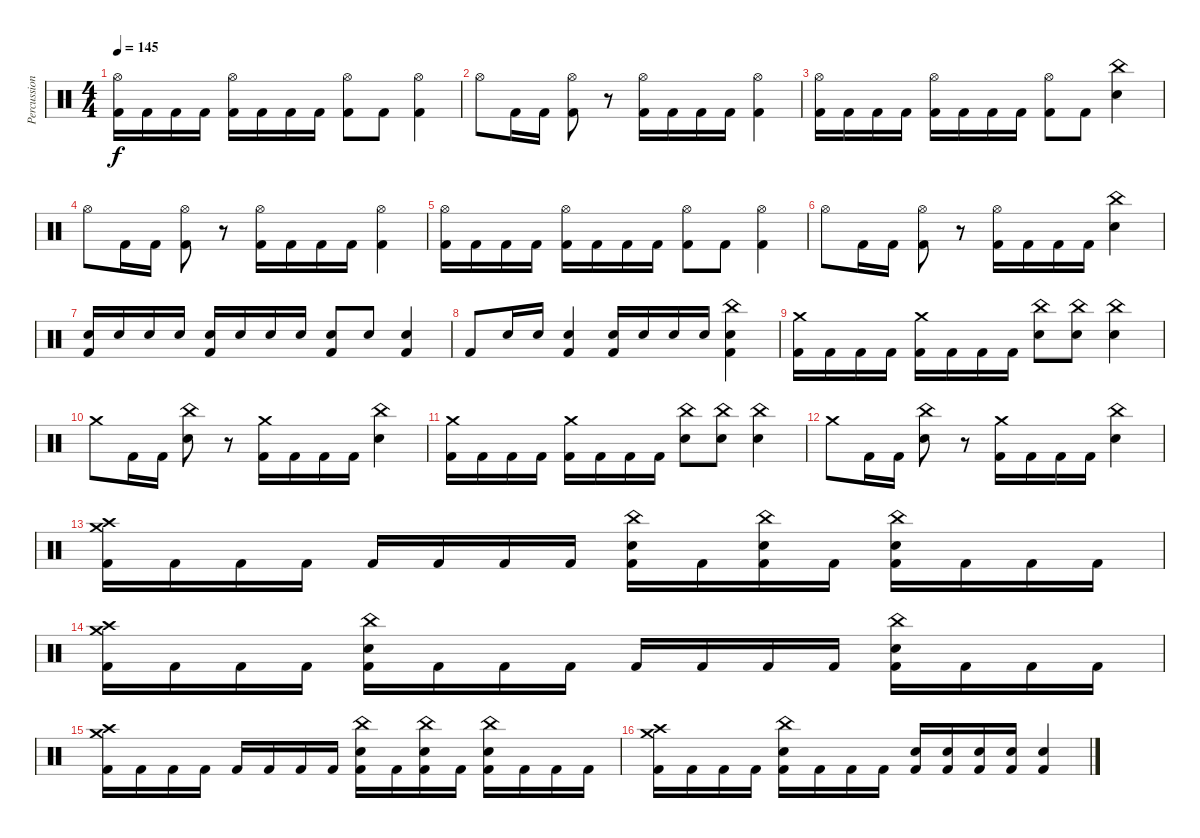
\track ("Percussion" "Percussion") {instrument percussion}
\staff {score}
\articulation defaults
\ts (4 4)
\tempo 145
\clef neutral
\ks c
("Kick (hit) 2" "Hi-Hat (open)").16{dy f} "Kick (hit) 2".16 "Kick (hit) 2".16 "Kick (hit) 2".16 ("Kick (hit) 2" "Hi-Hat (open)").16 "Kick (hit) 2".16 "Kick (hit) 2".16 "Kick (hit) 2".16 ("Kick (hit) 2" "Hi-Hat (open)").8 "Kick (hit) 2".8 ("Kick (hit) 2" "Hi-Hat (open)").4 |
"Hi-Hat (open)".8 "Kick (hit) 2".16 "Kick (hit) 2".16 ("Kick (hit) 2" "Hi-Hat (open)").8 r.8 ("Kick (hit) 2" "Hi-Hat (open)").16 "Kick (hit) 2".16 "Kick (hit) 2".16 "Kick (hit) 2".16 ("Kick (hit) 2" "Hi-Hat (open)").4 |
("Kick (hit) 2" "Hi-Hat (open)").16 "Kick (hit) 2".16 "Kick (hit) 2".16 "Kick (hit) 2".16 ("Kick (hit) 2" "Hi-Hat (open)").16 "Kick (hit) 2".16 "Kick (hit) 2".16 "Kick (hit) 2".16 ("Kick (hit) 2" "Hi-Hat (open)").8 "Kick (hit) 2".8 ("Electric Snare (hit)" "China (hit)").4 |
"Hi-Hat (open)".8 "Kick (hit) 2".16 "Kick (hit) 2".16 ("Kick (hit) 2" "Hi-Hat (open)").8 r.8 ("Kick (hit) 2" "Hi-Hat (open)").16 "Kick (hit) 2".16 "Kick (hit) 2".16 "Kick (hit) 2".16 ("Kick (hit) 2" "Hi-Hat (open)").4 |
("Kick (hit) 2" "Hi-Hat (open)").16 "Kick (hit) 2".16 "Kick (hit) 2".16 "Kick (hit) 2".16 ("Kick (hit) 2" "Hi-Hat (open)").16 "Kick (hit) 2".16 "Kick (hit) 2".16 "Kick (hit) 2".16 ("Kick (hit) 2" "Hi-Hat (open)").8 "Kick (hit) 2".8 ("Kick (hit) 2" "Hi-Hat (open)").4 |
"Hi-Hat (open)".8 "Kick (hit) 2".16 "Kick (hit) 2".16 ("Kick (hit) 2" "Hi-Hat (open)").8 r.8 ("Kick (hit) 2" "Hi-Hat (open)").16 "Kick (hit) 2".16 "Kick (hit) 2".16 "Kick (hit) 2".16 ("Electric Snare (hit)" "China (hit)").4 |
("Kick (hit) 2" "Electric Snare (hit)").16 "Electric Snare (hit)".16 "Electric Snare (hit)".16 "Electric Snare (hit)".16 ("Kick (hit) 2" "Electric Snare (hit)").16 "Electric Snare (hit)".16 "Electric Snare (hit)".16 "Electric Snare (hit)".16 ("Kick (hit) 2" "Electric Snare (hit)").8 "Electric Snare (hit)".8 ("Kick (hit) 2" "Electric Snare (hit)").4 |
"Kick (hit) 2".8 "Electric Snare (hit)".16 "Electric Snare (hit)".16 ("Kick (hit) 2" "Electric Snare (hit)").4 ("Kick (hit) 2" "Electric Snare (hit)").16 "Electric Snare (hit)".16 "Electric Snare (hit)".16 "Electric Snare (hit)".16 ("Kick (hit) 2" "Electric Snare (hit)" "China (hit)").4 |
("Kick (hit) 2" "Crash medium (hit)").16 "Kick (hit) 2".16 "Kick (hit) 2".16 "Kick (hit) 2".16 ("Kick (hit) 2" "Crash medium (hit)").16 "Kick (hit) 2".16 "Kick (hit) 2".16 "Kick (hit) 2".16 ("Electric Snare (hit)" "China (hit)").8 ("Electric Snare (hit)" "China (hit)").8 ("Electric Snare (hit)" "China (hit)").4 |
"Crash medium (hit)".8 "Kick (hit) 2".16 "Kick (hit) 2".16 ("Electric Snare (hit)" "China (hit)").8 r.8 ("Kick (hit) 2" "Crash medium (hit)").16 "Kick (hit) 2".16 "Kick (hit) 2".16 "Kick (hit) 2".16 ("Electric Snare (hit)" "China (hit)").4 |
("Kick (hit) 2" "Crash medium (hit)").16 "Kick (hit) 2".16 "Kick (hit) 2".16 "Kick (hit) 2".16 ("Kick (hit) 2" "Crash medium (hit)").16 "Kick (hit) 2".16 "Kick (hit) 2".16 "Kick (hit) 2".16 ("Electric Snare (hit)" "China (hit)").8 ("Electric Snare (hit)" "China (hit)").8 ("Electric Snare (hit)" "China (hit)").4 |
"Crash medium (hit)".8 "Kick (hit) 2".16 "Kick (hit) 2".16 ("Electric Snare (hit)" "China (hit)").8 r.8 ("Kick (hit) 2" "Crash medium (hit)").16 "Kick (hit) 2".16 "Kick (hit) 2".16 "Kick (hit) 2".16 ("Electric Snare (hit)" "China (hit)").4 |
("Kick (hit) 2" "Crash medium (hit)" "Crash high (hit)").16 "Kick (hit) 2".16 "Kick (hit) 2".16 "Kick (hit) 2".16 "Kick (hit) 2".16 "Kick (hit) 2".16 "Kick (hit) 2".16 "Kick (hit) 2".16 ("Kick (hit) 2" "Electric Snare (hit)" "China (hit)").16 "Kick (hit) 2".16 ("Kick (hit) 2" "Electric Snare (hit)" "China (hit)").16 "Kick (hit) 2".16 ("Kick (hit) 2" "Electric Snare (hit)" "China (hit)").16 "Kick (hit) 2".16 "Kick (hit) 2".16 "Kick (hit) 2".16 |
("Kick (hit) 2" "Crash medium (hit)" "Crash high (hit)").16 "Kick (hit) 2".16 "Kick (hit) 2".16 "Kick (hit) 2".16 ("Kick (hit) 2" "Electric Snare (hit)" "China (hit)").16 "Kick (hit) 2".16 "Kick (hit) 2".16 "Kick (hit) 2".16 "Kick (hit) 2".16 "Kick (hit) 2".16 "Kick (hit) 2".16 "Kick (hit) 2".16 ("Kick (hit) 2" "Electric Snare (hit)" "China (hit)").16 "Kick (hit) 2".16 "Kick (hit) 2".16 "Kick (hit) 2".16 |
("Kick (hit) 2" "Crash medium (hit)" "Crash high (hit)").16 "Kick (hit) 2".16 "Kick (hit) 2".16 "Kick (hit) 2".16 "Kick (hit) 2".16 "Kick (hit) 2".16 "Kick (hit) 2".16 "Kick (hit) 2".16 ("Kick (hit) 2" "Electric Snare (hit)" "China (hit)").16 "Kick (hit) 2".16 ("Kick (hit) 2" "Electric Snare (hit)" "China (hit)").16 "Kick (hit) 2".16 ("Kick (hit) 2" "Electric Snare (hit)" "China (hit)").16 "Kick (hit) 2".16 "Kick (hit) 2".16 "Kick (hit) 2".16 |
("Kick (hit) 2" "Crash medium (hit)" "Crash high (hit)").16 "Kick (hit) 2".16 "Kick (hit) 2".16 "Kick (hit) 2".16 ("Kick (hit) 2" "Electric Snare (hit)" "China (hit)").16 "Kick (hit) 2".16 "Kick (hit) 2".16 "Kick (hit) 2".16 ("Kick (hit) 2" "Electric Snare (hit)").16 ("Kick (hit) 2" "Electric Snare (hit)").16 ("Kick (hit) 2" "Electric Snare (hit)").16 ("Kick (hit) 2" "Electric Snare (hit)").16 ("Kick (hit) 2" "Electric Snare (hit)").4
